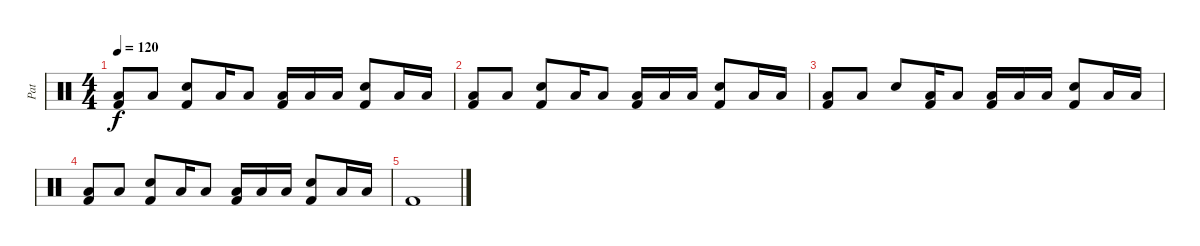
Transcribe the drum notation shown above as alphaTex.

\track ("Pat" "Pat") {instrument percussion}
\staff {score}
\articulation defaults
\ts (4 4)
\tempo 120
\clef neutral
\ks c
("Kick (hit) 2" "Low Tom (hit)").8{dy f} "Low Tom (hit)".8 ("Kick (hit) 2" "Snare (hit) 2").8 "Low Tom (hit)".16 "Low Tom (hit)".8 ("Kick (hit) 2" "Low Tom (hit)").16 "Low Tom (hit)".16 "Low Tom (hit)".16 ("Kick (hit) 2" "Snare (hit) 2").8 "Low Tom (hit)".16 "Low Tom (hit)".16 |
("Kick (hit) 2" "Low Tom (hit)").8 "Low Tom (hit)".8 ("Kick (hit) 2" "Snare (hit) 2").8 "Low Tom (hit)".16 "Low Tom (hit)".8 ("Kick (hit) 2" "Low Tom (hit)").16 "Low Tom (hit)".16 "Low Tom (hit)".16 ("Kick (hit) 2" "Snare (hit) 2").8 "Low Tom (hit)".16 "Low Tom (hit)".16 |
("Kick (hit) 2" "Low Tom (hit)").8 "Low Tom (hit)".8 "Snare (hit) 2".8 ("Kick (hit) 2" "Low Tom (hit)").16 "Low Tom (hit)".8 ("Kick (hit) 2" "Low Tom (hit)").16 "Low Tom (hit)".16 "Low Tom (hit)".16 ("Kick (hit) 2" "Snare (hit) 2").8 "Low Tom (hit)".16 "Low Tom (hit)".16 |
("Kick (hit) 2" "Low Tom (hit)").8 "Low Tom (hit)".8 ("Kick (hit) 2" "Snare (hit) 2").8 "Low Tom (hit)".16 "Low Tom (hit)".8 ("Kick (hit) 2" "Low Tom (hit)").16 "Low Tom (hit)".16 "Low Tom (hit)".16 ("Kick (hit) 2" "Snare (hit) 2").8 "Low Tom (hit)".16 "Low Tom (hit)".16 |
"Kick (hit) 2".1
